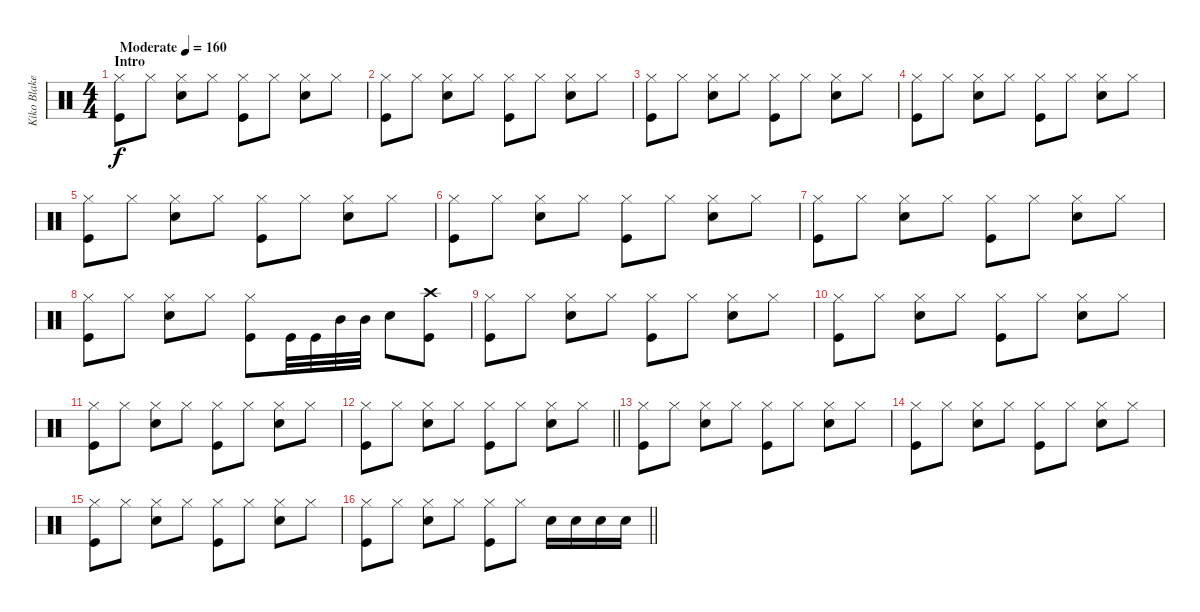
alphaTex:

\track ("Kiko Blake" "Kiko Blake") {instrument percussion}
\staff {score}
\articulation defaults
\ts (4 4)
\section ("" "Intro")
\tempo (160 "Moderate")
\clef neutral
\ks c
("Hi-Hat (closed)" "Kick (hit)").8{dy f} "Hi-Hat (closed)".8 ("Hi-Hat (closed)" "Snare (hit) 2").8 "Hi-Hat (closed)".8 ("Hi-Hat (closed)" "Kick (hit)").8 "Hi-Hat (closed)".8 ("Hi-Hat (closed)" "Snare (hit) 2").8 "Hi-Hat (closed)".8 |
("Hi-Hat (closed)" "Kick (hit)").8 "Hi-Hat (closed)".8 ("Hi-Hat (closed)" "Snare (hit) 2").8 "Hi-Hat (closed)".8 ("Hi-Hat (closed)" "Kick (hit)").8 "Hi-Hat (closed)".8 ("Hi-Hat (closed)" "Snare (hit) 2").8 "Hi-Hat (closed)".8 |
("Hi-Hat (closed)" "Kick (hit)").8 "Hi-Hat (closed)".8 ("Hi-Hat (closed)" "Snare (hit) 2").8 "Hi-Hat (closed)".8 ("Hi-Hat (closed)" "Kick (hit)").8 "Hi-Hat (closed)".8 ("Hi-Hat (closed)" "Snare (hit) 2").8 "Hi-Hat (closed)".8 |
("Hi-Hat (closed)" "Kick (hit)").8 "Hi-Hat (closed)".8 ("Hi-Hat (closed)" "Snare (hit) 2").8 "Hi-Hat (closed)".8 ("Hi-Hat (closed)" "Kick (hit)").8 "Hi-Hat (closed)".8 ("Hi-Hat (closed)" "Snare (hit) 2").8 "Hi-Hat (closed)".8 |
("Hi-Hat (closed)" "Kick (hit)").8 "Hi-Hat (closed)".8 ("Hi-Hat (closed)" "Snare (hit) 2").8 "Hi-Hat (closed)".8 ("Hi-Hat (closed)" "Kick (hit)").8 "Hi-Hat (closed)".8 ("Hi-Hat (closed)" "Snare (hit) 2").8 "Hi-Hat (closed)".8 |
("Hi-Hat (closed)" "Kick (hit)").8 "Hi-Hat (closed)".8 ("Hi-Hat (closed)" "Snare (hit) 2").8 "Hi-Hat (closed)".8 ("Hi-Hat (closed)" "Kick (hit)").8 "Hi-Hat (closed)".8 ("Hi-Hat (closed)" "Snare (hit) 2").8 "Hi-Hat (closed)".8 |
("Hi-Hat (closed)" "Kick (hit)").8 "Hi-Hat (closed)".8 ("Hi-Hat (closed)" "Snare (hit) 2").8 "Hi-Hat (closed)".8 ("Hi-Hat (closed)" "Kick (hit)").8 "Hi-Hat (closed)".8 ("Hi-Hat (closed)" "Snare (hit) 2").8 "Hi-Hat (closed)".8 |
("Hi-Hat (closed)" "Kick (hit)").8 "Hi-Hat (closed)".8 ("Hi-Hat (closed)" "Snare (hit) 2").8 "Hi-Hat (closed)".8 ("Hi-Hat (closed)" "Kick (hit)").8 "Kick (hit)".32 "Kick (hit)".32 "Mid Tom (hit)".32 "Mid Tom (hit)".32 "Snare (hit) 2".8 ("Crash high (hit)" "Kick (hit)").8 |
("Hi-Hat (closed)" "Kick (hit)").8 "Hi-Hat (closed)".8 ("Hi-Hat (closed)" "Snare (hit) 2").8 "Hi-Hat (closed)".8 ("Hi-Hat (closed)" "Kick (hit)").8 "Hi-Hat (closed)".8 ("Hi-Hat (closed)" "Snare (hit) 2").8 "Hi-Hat (closed)".8 |
("Hi-Hat (closed)" "Kick (hit)").8 "Hi-Hat (closed)".8 ("Hi-Hat (closed)" "Snare (hit) 2").8 "Hi-Hat (closed)".8 ("Hi-Hat (closed)" "Kick (hit)").8 "Hi-Hat (closed)".8 ("Hi-Hat (closed)" "Snare (hit) 2").8 "Hi-Hat (closed)".8 |
("Hi-Hat (closed)" "Kick (hit)").8 "Hi-Hat (closed)".8 ("Hi-Hat (closed)" "Snare (hit) 2").8 "Hi-Hat (closed)".8 ("Hi-Hat (closed)" "Kick (hit)").8 "Hi-Hat (closed)".8 ("Hi-Hat (closed)" "Snare (hit) 2").8 "Hi-Hat (closed)".8 |
\barLineRight lightlight
("Hi-Hat (closed)" "Kick (hit)").8 "Hi-Hat (closed)".8 ("Hi-Hat (closed)" "Snare (hit) 2").8 "Hi-Hat (closed)".8 ("Hi-Hat (closed)" "Kick (hit)").8 "Hi-Hat (closed)".8 ("Hi-Hat (closed)" "Snare (hit) 2").8 "Hi-Hat (closed)".8 |
("Hi-Hat (closed)" "Kick (hit)").8 "Hi-Hat (closed)".8 ("Hi-Hat (closed)" "Snare (hit) 2").8 "Hi-Hat (closed)".8 ("Hi-Hat (closed)" "Kick (hit)").8 "Hi-Hat (closed)".8 ("Hi-Hat (closed)" "Snare (hit) 2").8 "Hi-Hat (closed)".8 |
("Hi-Hat (closed)" "Kick (hit)").8 "Hi-Hat (closed)".8 ("Hi-Hat (closed)" "Snare (hit) 2").8 "Hi-Hat (closed)".8 ("Hi-Hat (closed)" "Kick (hit)").8 "Hi-Hat (closed)".8 ("Hi-Hat (closed)" "Snare (hit) 2").8 "Hi-Hat (closed)".8 |
("Hi-Hat (closed)" "Kick (hit)").8 "Hi-Hat (closed)".8 ("Hi-Hat (closed)" "Snare (hit) 2").8 "Hi-Hat (closed)".8 ("Hi-Hat (closed)" "Kick (hit)").8 "Hi-Hat (closed)".8 ("Hi-Hat (closed)" "Snare (hit) 2").8 "Hi-Hat (closed)".8 |
\barLineRight lightlight
("Hi-Hat (closed)" "Kick (hit)").8 "Hi-Hat (closed)".8 ("Hi-Hat (closed)" "Snare (hit) 2").8 "Hi-Hat (closed)".8 ("Hi-Hat (closed)" "Kick (hit)").8 "Hi-Hat (closed)".8 "Snare (hit) 2".16 "Snare (hit) 2".16 "Snare (hit) 2".16 "Snare (hit) 2".16
